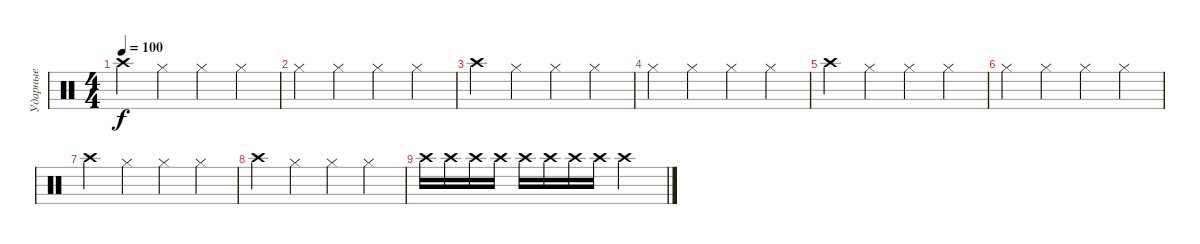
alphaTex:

\track ("Ударные" "Ударные") {instrument percussion}
\staff {score}
\articulation defaults
\ts (4 4)
\tempo 100
\clef neutral
\ks c "Crash high (hit)".4{dy f} "Hi-Hat (closed)".4 "Hi-Hat (closed)".4 "Hi-Hat (closed)".4
|
"Hi-Hat (closed)".4 "Hi-Hat (closed)".4 "Hi-Hat (closed)".4 "Hi-Hat (closed)".4 |
"Crash high (hit)".4 "Hi-Hat (closed)".4 "Hi-Hat (closed)".4 "Hi-Hat (closed)".4 |
"Hi-Hat (closed)".4 "Hi-Hat (closed)".4 "Hi-Hat (closed)".4 "Hi-Hat (closed)".4 |
"Crash high (hit)".4 "Hi-Hat (closed)".4 "Hi-Hat (closed)".4 "Hi-Hat (closed)".4 |
"Hi-Hat (closed)".4 "Hi-Hat (closed)".4 "Hi-Hat (closed)".4 "Hi-Hat (closed)".4 |
"Crash high (hit)".4 "Hi-Hat (closed)".4 "Hi-Hat (closed)".4 "Hi-Hat (closed)".4 |
"Crash high (hit)".4 "Hi-Hat (closed)".4 "Hi-Hat (closed)".4 "Hi-Hat (closed)".4 |
"Crash high (hit)".16 "Crash high (hit)".16 "Crash high (hit)".16 "Crash high (hit)".16 "Crash high (hit)".16 "Crash high (hit)".16 "Crash high (hit)".16 "Crash high (hit)".16 "Crash high (hit)".2
